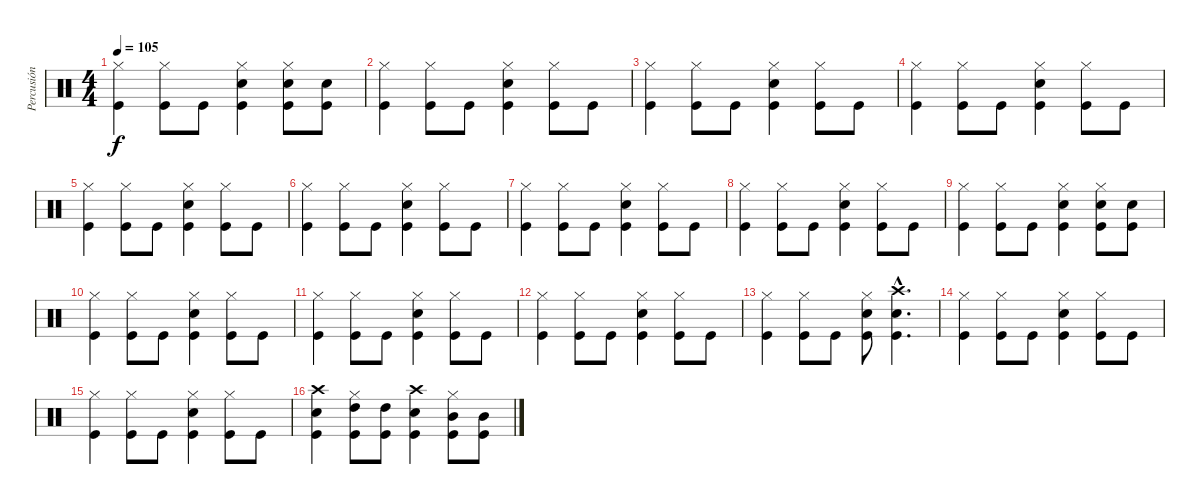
\track ("Percusión" "Percusión") {instrument percussion}
\staff {score}
\articulation defaults
\ts (4 4)
\tempo 105
\clef neutral
\ks c
("Hi-Hat (closed)" "Kick (hit)").4{dy f} ("Hi-Hat (closed)" "Kick (hit)").8 "Kick (hit)".8 ("Hi-Hat (closed)" "Snare (hit) 2" "Kick (hit)").4 ("Hi-Hat (closed)" "Snare (hit) 2" "Kick (hit)").8 ("Snare (hit) 2" "Kick (hit)").8 |
("Hi-Hat (closed)" "Kick (hit)").4 ("Hi-Hat (closed)" "Kick (hit)").8 "Kick (hit)".8 ("Hi-Hat (closed)" "Snare (hit) 2" "Kick (hit)").4 ("Hi-Hat (closed)" "Kick (hit)").8 "Kick (hit)".8 |
("Hi-Hat (closed)" "Kick (hit)").4 ("Hi-Hat (closed)" "Kick (hit)").8 "Kick (hit)".8 ("Hi-Hat (closed)" "Snare (hit) 2" "Kick (hit)").4 ("Hi-Hat (closed)" "Kick (hit)").8 "Kick (hit)".8 |
("Hi-Hat (closed)" "Kick (hit)").4 ("Hi-Hat (closed)" "Kick (hit)").8 "Kick (hit)".8 ("Hi-Hat (closed)" "Snare (hit) 2" "Kick (hit)").4 ("Hi-Hat (closed)" "Kick (hit)").8 "Kick (hit)".8 |
("Hi-Hat (closed)" "Kick (hit)").4 ("Hi-Hat (closed)" "Kick (hit)").8 "Kick (hit)".8 ("Hi-Hat (closed)" "Snare (hit) 2" "Kick (hit)").4 ("Hi-Hat (closed)" "Kick (hit)").8 "Kick (hit)".8 |
("Hi-Hat (closed)" "Kick (hit)").4 ("Hi-Hat (closed)" "Kick (hit)").8 "Kick (hit)".8 ("Hi-Hat (closed)" "Snare (hit) 2" "Kick (hit)").4 ("Hi-Hat (closed)" "Kick (hit)").8 "Kick (hit)".8 |
("Hi-Hat (closed)" "Kick (hit)").4 ("Hi-Hat (closed)" "Kick (hit)").8 "Kick (hit)".8 ("Hi-Hat (closed)" "Snare (hit) 2" "Kick (hit)").4 ("Hi-Hat (closed)" "Kick (hit)").8 "Kick (hit)".8 |
("Hi-Hat (closed)" "Kick (hit)").4 ("Hi-Hat (closed)" "Kick (hit)").8 "Kick (hit)".8 ("Hi-Hat (closed)" "Snare (hit) 2" "Kick (hit)").4 ("Hi-Hat (closed)" "Kick (hit)").8 "Kick (hit)".8 |
("Hi-Hat (closed)" "Kick (hit)").4 ("Hi-Hat (closed)" "Kick (hit)").8 "Kick (hit)".8 ("Hi-Hat (closed)" "Snare (hit) 2" "Kick (hit)").4 ("Hi-Hat (closed)" "Snare (hit) 2" "Kick (hit)").8 ("Snare (hit) 2" "Kick (hit)").8 |
("Hi-Hat (closed)" "Kick (hit)").4 ("Hi-Hat (closed)" "Kick (hit)").8 "Kick (hit)".8 ("Hi-Hat (closed)" "Snare (hit) 2" "Kick (hit)").4 ("Hi-Hat (closed)" "Kick (hit)").8 "Kick (hit)".8 |
("Hi-Hat (closed)" "Kick (hit)").4 ("Hi-Hat (closed)" "Kick (hit)").8 "Kick (hit)".8 ("Hi-Hat (closed)" "Snare (hit) 2" "Kick (hit)").4 ("Hi-Hat (closed)" "Kick (hit)").8 "Kick (hit)".8 |
("Hi-Hat (closed)" "Kick (hit)").4 ("Hi-Hat (closed)" "Kick (hit)").8 "Kick (hit)".8 ("Hi-Hat (closed)" "Snare (hit) 2" "Kick (hit)").4 ("Hi-Hat (closed)" "Kick (hit)").8 "Kick (hit)".8 |
("Hi-Hat (closed)" "Kick (hit)").4 ("Hi-Hat (closed)" "Kick (hit)").8 "Kick (hit)".8 ("Hi-Hat (closed)" "Snare (hit) 2" "Kick (hit)").8 ("Crash high (hit)"{hac} "Snare (hit) 2"{hac} "Kick (hit)"{hac}).4{d} |
("Hi-Hat (closed)" "Kick (hit)").4 ("Hi-Hat (closed)" "Kick (hit)").8 "Kick (hit)".8 ("Hi-Hat (closed)" "Snare (hit) 2" "Kick (hit)").4 ("Hi-Hat (closed)" "Kick (hit)").8 "Kick (hit)".8 |
("Hi-Hat (closed)" "Kick (hit)").4 ("Hi-Hat (closed)" "Kick (hit)").8 "Kick (hit)".8 ("Hi-Hat (closed)" "Snare (hit) 2" "Kick (hit)").4 ("Hi-Hat (closed)" "Kick (hit)").8 "Kick (hit)".8 |
("Crash high (hit)" "Snare (hit) 2" "Kick (hit)").4 ("Hi-Hat (closed)" "High Tom (hit)" "Kick (hit)").8 ("High Tom (hit)" "Kick (hit)").8 ("Crash high (hit)" "Snare (hit) 2" "Kick (hit)").4 ("Hi-Hat (closed)" "Mid Tom (hit)" "Kick (hit)").8 ("Mid Tom (hit)" "Kick (hit)").8
